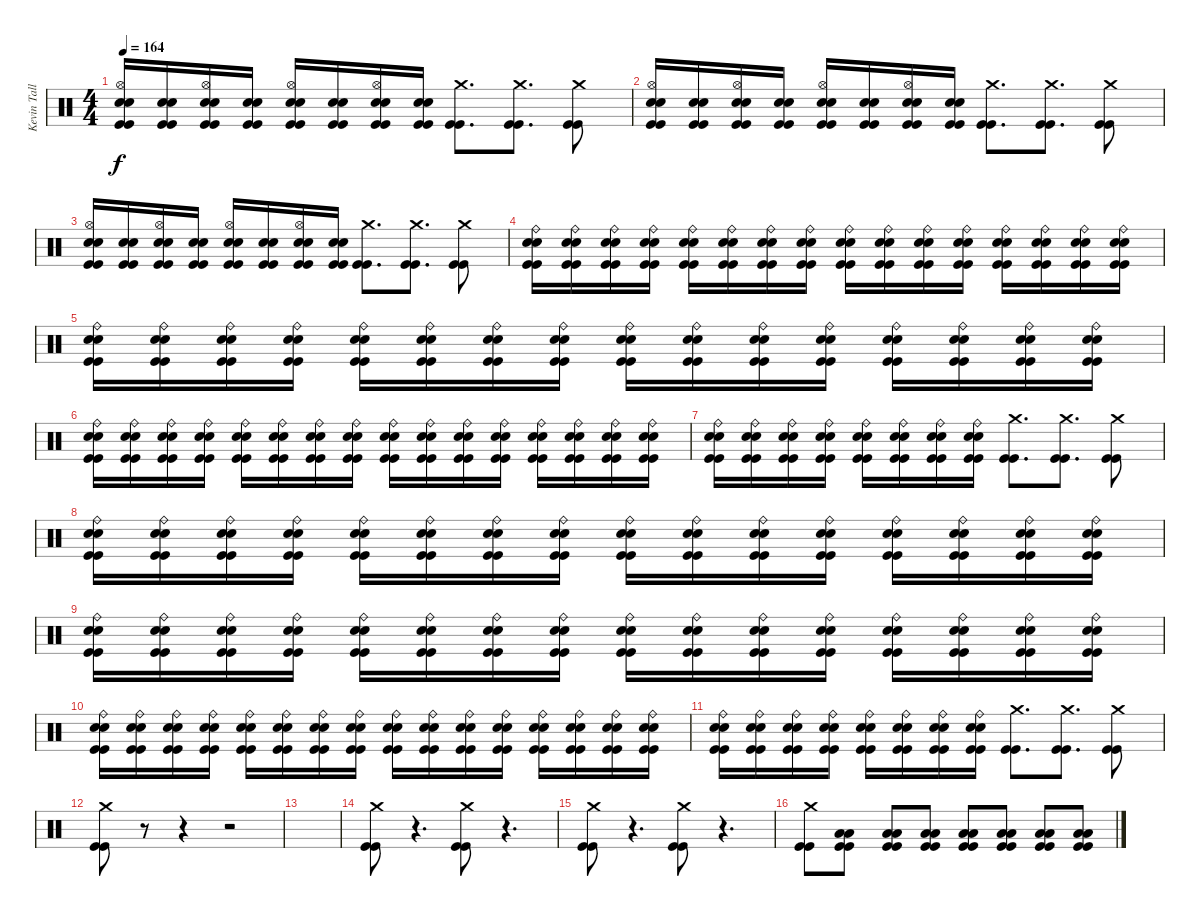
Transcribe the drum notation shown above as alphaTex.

\track ("Kevin Talley" "Kevin Tall") {instrument percussion}
\staff {score}
\articulation defaults
\ts (4 4)
\tempo 164
\clef neutral
\ks c
("Snare (hit) 2" "Snare (hit) 2" "Hi-Hat (open)" "Kick (hit)" "Kick (hit)").16{dy f} ("Snare (hit) 2" "Snare (hit) 2" "Kick (hit)" "Kick (hit)").16 ("Snare (hit) 2" "Snare (hit) 2" "Hi-Hat (open)" "Kick (hit)" "Kick (hit)").16 ("Snare (hit) 2" "Snare (hit) 2" "Kick (hit)" "Kick (hit)").16 ("Snare (hit) 2" "Snare (hit) 2" "Hi-Hat (open)" "Kick (hit)" "Kick (hit)").16 ("Snare (hit) 2" "Snare (hit) 2" "Kick (hit)" "Kick (hit)").16 ("Snare (hit) 2" "Snare (hit) 2" "Hi-Hat (open)" "Kick (hit)" "Kick (hit)").16 ("Snare (hit) 2" "Snare (hit) 2" "Kick (hit)" "Kick (hit)").16 ("Crash medium (hit)" "Kick (hit)" "Kick (hit)").8{d} ("Crash medium (hit)" "Kick (hit)" "Kick (hit)").8{d} ("Crash medium (hit)" "Kick (hit)" "Kick (hit)").8 |
("Snare (hit) 2" "Snare (hit) 2" "Hi-Hat (open)" "Kick (hit)" "Kick (hit)").16 ("Snare (hit) 2" "Snare (hit) 2" "Kick (hit)" "Kick (hit)").16 ("Snare (hit) 2" "Snare (hit) 2" "Hi-Hat (open)" "Kick (hit)" "Kick (hit)").16 ("Snare (hit) 2" "Snare (hit) 2" "Kick (hit)" "Kick (hit)").16 ("Snare (hit) 2" "Snare (hit) 2" "Hi-Hat (open)" "Kick (hit)" "Kick (hit)").16 ("Snare (hit) 2" "Snare (hit) 2" "Kick (hit)" "Kick (hit)").16 ("Snare (hit) 2" "Snare (hit) 2" "Hi-Hat (open)" "Kick (hit)" "Kick (hit)").16 ("Snare (hit) 2" "Snare (hit) 2" "Kick (hit)" "Kick (hit)").16 ("Crash medium (hit)" "Kick (hit)" "Kick (hit)").8{d} ("Crash medium (hit)" "Kick (hit)" "Kick (hit)").8{d} ("Crash medium (hit)" "Kick (hit)" "Kick (hit)").8 |
("Snare (hit) 2" "Snare (hit) 2" "Hi-Hat (open)" "Kick (hit)" "Kick (hit)").16 ("Snare (hit) 2" "Snare (hit) 2" "Kick (hit)" "Kick (hit)").16 ("Snare (hit) 2" "Snare (hit) 2" "Hi-Hat (open)" "Kick (hit)" "Kick (hit)").16 ("Snare (hit) 2" "Snare (hit) 2" "Kick (hit)" "Kick (hit)").16 ("Snare (hit) 2" "Snare (hit) 2" "Hi-Hat (open)" "Kick (hit)" "Kick (hit)").16 ("Snare (hit) 2" "Snare (hit) 2" "Kick (hit)" "Kick (hit)").16 ("Snare (hit) 2" "Snare (hit) 2" "Hi-Hat (open)" "Kick (hit)" "Kick (hit)").16 ("Snare (hit) 2" "Snare (hit) 2" "Kick (hit)" "Kick (hit)").16 ("Crash medium (hit)" "Kick (hit)" "Kick (hit)").8{d} ("Crash medium (hit)" "Kick (hit)" "Kick (hit)").8{d} ("Crash medium (hit)" "Kick (hit)" "Kick (hit)").8 |
("Snare (hit) 2" "Snare (hit) 2" "Ride (bell)" "Kick (hit)" "Kick (hit)").16 ("Snare (hit) 2" "Snare (hit) 2" "Ride (bell)" "Kick (hit)" "Kick (hit)").16 ("Snare (hit) 2" "Snare (hit) 2" "Ride (bell)" "Kick (hit)" "Kick (hit)").16 ("Snare (hit) 2" "Snare (hit) 2" "Ride (bell)" "Kick (hit)" "Kick (hit)").16 ("Snare (hit) 2" "Snare (hit) 2" "Ride (bell)" "Kick (hit)" "Kick (hit)").16 ("Snare (hit) 2" "Snare (hit) 2" "Ride (bell)" "Kick (hit)" "Kick (hit)").16 ("Snare (hit) 2" "Snare (hit) 2" "Ride (bell)" "Kick (hit)" "Kick (hit)").16 ("Snare (hit) 2" "Snare (hit) 2" "Ride (bell)" "Kick (hit)" "Kick (hit)").16 ("Snare (hit) 2" "Snare (hit) 2" "Ride (bell)" "Kick (hit)" "Kick (hit)").16 ("Snare (hit) 2" "Snare (hit) 2" "Ride (bell)" "Kick (hit)" "Kick (hit)").16 ("Snare (hit) 2" "Snare (hit) 2" "Ride (bell)" "Kick (hit)" "Kick (hit)").16 ("Snare (hit) 2" "Snare (hit) 2" "Ride (bell)" "Kick (hit)" "Kick (hit)").16 ("Snare (hit) 2" "Snare (hit) 2" "Ride (bell)" "Kick (hit)" "Kick (hit)").16 ("Snare (hit) 2" "Snare (hit) 2" "Ride (bell)" "Kick (hit)" "Kick (hit)").16 ("Snare (hit) 2" "Snare (hit) 2" "Ride (bell)" "Kick (hit)" "Kick (hit)").16 ("Snare (hit) 2" "Snare (hit) 2" "Ride (bell)" "Kick (hit)" "Kick (hit)").16 |
("Snare (hit) 2" "Snare (hit) 2" "Ride (bell)" "Kick (hit)" "Kick (hit)").16 ("Snare (hit) 2" "Snare (hit) 2" "Ride (bell)" "Kick (hit)" "Kick (hit)").16 ("Snare (hit) 2" "Snare (hit) 2" "Ride (bell)" "Kick (hit)" "Kick (hit)").16 ("Snare (hit) 2" "Snare (hit) 2" "Ride (bell)" "Kick (hit)" "Kick (hit)").16 ("Snare (hit) 2" "Snare (hit) 2" "Ride (bell)" "Kick (hit)" "Kick (hit)").16 ("Snare (hit) 2" "Snare (hit) 2" "Ride (bell)" "Kick (hit)" "Kick (hit)").16 ("Snare (hit) 2" "Snare (hit) 2" "Ride (bell)" "Kick (hit)" "Kick (hit)").16 ("Snare (hit) 2" "Snare (hit) 2" "Ride (bell)" "Kick (hit)" "Kick (hit)").16 ("Snare (hit) 2" "Snare (hit) 2" "Ride (bell)" "Kick (hit)" "Kick (hit)").16 ("Snare (hit) 2" "Snare (hit) 2" "Ride (bell)" "Kick (hit)" "Kick (hit)").16 ("Snare (hit) 2" "Snare (hit) 2" "Ride (bell)" "Kick (hit)" "Kick (hit)").16 ("Snare (hit) 2" "Snare (hit) 2" "Ride (bell)" "Kick (hit)" "Kick (hit)").16 ("Snare (hit) 2" "Snare (hit) 2" "Ride (bell)" "Kick (hit)" "Kick (hit)").16 ("Snare (hit) 2" "Snare (hit) 2" "Ride (bell)" "Kick (hit)" "Kick (hit)").16 ("Snare (hit) 2" "Snare (hit) 2" "Ride (bell)" "Kick (hit)" "Kick (hit)").16 ("Snare (hit) 2" "Snare (hit) 2" "Ride (bell)" "Kick (hit)" "Kick (hit)").16 |
("Snare (hit) 2" "Snare (hit) 2" "Ride (bell)" "Kick (hit)" "Kick (hit)").16 ("Snare (hit) 2" "Snare (hit) 2" "Ride (bell)" "Kick (hit)" "Kick (hit)").16 ("Snare (hit) 2" "Snare (hit) 2" "Ride (bell)" "Kick (hit)" "Kick (hit)").16 ("Snare (hit) 2" "Snare (hit) 2" "Ride (bell)" "Kick (hit)" "Kick (hit)").16 ("Snare (hit) 2" "Snare (hit) 2" "Ride (bell)" "Kick (hit)" "Kick (hit)").16 ("Snare (hit) 2" "Snare (hit) 2" "Ride (bell)" "Kick (hit)" "Kick (hit)").16 ("Snare (hit) 2" "Snare (hit) 2" "Ride (bell)" "Kick (hit)" "Kick (hit)").16 ("Snare (hit) 2" "Snare (hit) 2" "Ride (bell)" "Kick (hit)" "Kick (hit)").16 ("Snare (hit) 2" "Snare (hit) 2" "Ride (bell)" "Kick (hit)" "Kick (hit)").16 ("Snare (hit) 2" "Snare (hit) 2" "Ride (bell)" "Kick (hit)" "Kick (hit)").16 ("Snare (hit) 2" "Snare (hit) 2" "Ride (bell)" "Kick (hit)" "Kick (hit)").16 ("Snare (hit) 2" "Snare (hit) 2" "Ride (bell)" "Kick (hit)" "Kick (hit)").16 ("Snare (hit) 2" "Snare (hit) 2" "Ride (bell)" "Kick (hit)" "Kick (hit)").16 ("Snare (hit) 2" "Snare (hit) 2" "Ride (bell)" "Kick (hit)" "Kick (hit)").16 ("Snare (hit) 2" "Snare (hit) 2" "Ride (bell)" "Kick (hit)" "Kick (hit)").16 ("Snare (hit) 2" "Snare (hit) 2" "Ride (bell)" "Kick (hit)" "Kick (hit)").16 |
("Snare (hit) 2" "Snare (hit) 2" "Ride (bell)" "Kick (hit)" "Kick (hit)").16 ("Snare (hit) 2" "Snare (hit) 2" "Ride (bell)" "Kick (hit)" "Kick (hit)").16 ("Snare (hit) 2" "Snare (hit) 2" "Ride (bell)" "Kick (hit)" "Kick (hit)").16 ("Snare (hit) 2" "Snare (hit) 2" "Ride (bell)" "Kick (hit)" "Kick (hit)").16 ("Snare (hit) 2" "Snare (hit) 2" "Ride (bell)" "Kick (hit)" "Kick (hit)").16 ("Snare (hit) 2" "Snare (hit) 2" "Ride (bell)" "Kick (hit)" "Kick (hit)").16 ("Snare (hit) 2" "Snare (hit) 2" "Ride (bell)" "Kick (hit)" "Kick (hit)").16 ("Snare (hit) 2" "Snare (hit) 2" "Ride (bell)" "Kick (hit)" "Kick (hit)").16 ("Crash medium (hit)" "Kick (hit)" "Kick (hit)").8{d} ("Crash medium (hit)" "Kick (hit)" "Kick (hit)").8{d} ("Crash medium (hit)" "Kick (hit)" "Kick (hit)").8 |
("Snare (hit) 2" "Snare (hit) 2" "Ride (bell)" "Kick (hit)" "Kick (hit)").16 ("Snare (hit) 2" "Snare (hit) 2" "Ride (bell)" "Kick (hit)" "Kick (hit)").16 ("Snare (hit) 2" "Snare (hit) 2" "Ride (bell)" "Kick (hit)" "Kick (hit)").16 ("Snare (hit) 2" "Snare (hit) 2" "Ride (bell)" "Kick (hit)" "Kick (hit)").16 ("Snare (hit) 2" "Snare (hit) 2" "Ride (bell)" "Kick (hit)" "Kick (hit)").16 ("Snare (hit) 2" "Snare (hit) 2" "Ride (bell)" "Kick (hit)" "Kick (hit)").16 ("Snare (hit) 2" "Snare (hit) 2" "Ride (bell)" "Kick (hit)" "Kick (hit)").16 ("Snare (hit) 2" "Snare (hit) 2" "Ride (bell)" "Kick (hit)" "Kick (hit)").16 ("Snare (hit) 2" "Snare (hit) 2" "Ride (bell)" "Kick (hit)" "Kick (hit)").16 ("Snare (hit) 2" "Snare (hit) 2" "Ride (bell)" "Kick (hit)" "Kick (hit)").16 ("Snare (hit) 2" "Snare (hit) 2" "Ride (bell)" "Kick (hit)" "Kick (hit)").16 ("Snare (hit) 2" "Snare (hit) 2" "Ride (bell)" "Kick (hit)" "Kick (hit)").16 ("Snare (hit) 2" "Snare (hit) 2" "Ride (bell)" "Kick (hit)" "Kick (hit)").16 ("Snare (hit) 2" "Snare (hit) 2" "Ride (bell)" "Kick (hit)" "Kick (hit)").16 ("Snare (hit) 2" "Snare (hit) 2" "Ride (bell)" "Kick (hit)" "Kick (hit)").16 ("Snare (hit) 2" "Snare (hit) 2" "Ride (bell)" "Kick (hit)" "Kick (hit)").16 |
("Snare (hit) 2" "Snare (hit) 2" "Ride (bell)" "Kick (hit)" "Kick (hit)").16 ("Snare (hit) 2" "Snare (hit) 2" "Ride (bell)" "Kick (hit)" "Kick (hit)").16 ("Snare (hit) 2" "Snare (hit) 2" "Ride (bell)" "Kick (hit)" "Kick (hit)").16 ("Snare (hit) 2" "Snare (hit) 2" "Ride (bell)" "Kick (hit)" "Kick (hit)").16 ("Snare (hit) 2" "Snare (hit) 2" "Ride (bell)" "Kick (hit)" "Kick (hit)").16 ("Snare (hit) 2" "Snare (hit) 2" "Ride (bell)" "Kick (hit)" "Kick (hit)").16 ("Snare (hit) 2" "Snare (hit) 2" "Ride (bell)" "Kick (hit)" "Kick (hit)").16 ("Snare (hit) 2" "Snare (hit) 2" "Ride (bell)" "Kick (hit)" "Kick (hit)").16 ("Snare (hit) 2" "Snare (hit) 2" "Ride (bell)" "Kick (hit)" "Kick (hit)").16 ("Snare (hit) 2" "Snare (hit) 2" "Ride (bell)" "Kick (hit)" "Kick (hit)").16 ("Snare (hit) 2" "Snare (hit) 2" "Ride (bell)" "Kick (hit)" "Kick (hit)").16 ("Snare (hit) 2" "Snare (hit) 2" "Ride (bell)" "Kick (hit)" "Kick (hit)").16 ("Snare (hit) 2" "Snare (hit) 2" "Ride (bell)" "Kick (hit)" "Kick (hit)").16 ("Snare (hit) 2" "Snare (hit) 2" "Ride (bell)" "Kick (hit)" "Kick (hit)").16 ("Snare (hit) 2" "Snare (hit) 2" "Ride (bell)" "Kick (hit)" "Kick (hit)").16 ("Snare (hit) 2" "Snare (hit) 2" "Ride (bell)" "Kick (hit)" "Kick (hit)").16 |
("Snare (hit) 2" "Snare (hit) 2" "Ride (bell)" "Kick (hit)" "Kick (hit)").16 ("Snare (hit) 2" "Snare (hit) 2" "Ride (bell)" "Kick (hit)" "Kick (hit)").16 ("Snare (hit) 2" "Snare (hit) 2" "Ride (bell)" "Kick (hit)" "Kick (hit)").16 ("Snare (hit) 2" "Snare (hit) 2" "Ride (bell)" "Kick (hit)" "Kick (hit)").16 ("Snare (hit) 2" "Snare (hit) 2" "Ride (bell)" "Kick (hit)" "Kick (hit)").16 ("Snare (hit) 2" "Snare (hit) 2" "Ride (bell)" "Kick (hit)" "Kick (hit)").16 ("Snare (hit) 2" "Snare (hit) 2" "Ride (bell)" "Kick (hit)" "Kick (hit)").16 ("Snare (hit) 2" "Snare (hit) 2" "Ride (bell)" "Kick (hit)" "Kick (hit)").16 ("Snare (hit) 2" "Snare (hit) 2" "Ride (bell)" "Kick (hit)" "Kick (hit)").16 ("Snare (hit) 2" "Snare (hit) 2" "Ride (bell)" "Kick (hit)" "Kick (hit)").16 ("Snare (hit) 2" "Snare (hit) 2" "Ride (bell)" "Kick (hit)" "Kick (hit)").16 ("Snare (hit) 2" "Snare (hit) 2" "Ride (bell)" "Kick (hit)" "Kick (hit)").16 ("Snare (hit) 2" "Snare (hit) 2" "Ride (bell)" "Kick (hit)" "Kick (hit)").16 ("Snare (hit) 2" "Snare (hit) 2" "Ride (bell)" "Kick (hit)" "Kick (hit)").16 ("Snare (hit) 2" "Snare (hit) 2" "Ride (bell)" "Kick (hit)" "Kick (hit)").16 ("Snare (hit) 2" "Snare (hit) 2" "Ride (bell)" "Kick (hit)" "Kick (hit)").16 |
("Snare (hit) 2" "Snare (hit) 2" "Ride (bell)" "Kick (hit)" "Kick (hit)").16 ("Snare (hit) 2" "Snare (hit) 2" "Ride (bell)" "Kick (hit)" "Kick (hit)").16 ("Snare (hit) 2" "Snare (hit) 2" "Ride (bell)" "Kick (hit)" "Kick (hit)").16 ("Snare (hit) 2" "Snare (hit) 2" "Ride (bell)" "Kick (hit)" "Kick (hit)").16 ("Snare (hit) 2" "Snare (hit) 2" "Ride (bell)" "Kick (hit)" "Kick (hit)").16 ("Snare (hit) 2" "Snare (hit) 2" "Ride (bell)" "Kick (hit)" "Kick (hit)").16 ("Snare (hit) 2" "Snare (hit) 2" "Ride (bell)" "Kick (hit)" "Kick (hit)").16 ("Snare (hit) 2" "Snare (hit) 2" "Ride (bell)" "Kick (hit)" "Kick (hit)").16 ("Crash medium (hit)" "Kick (hit)" "Kick (hit)").8{d} ("Crash medium (hit)" "Kick (hit)" "Kick (hit)").8{d} ("Crash medium (hit)" "Kick (hit)" "Kick (hit)").8 |
("Crash medium (hit)" "Kick (hit)" "Kick (hit)").8 r.8 r.4 r.2 |
|
("Crash medium (hit)" "Kick (hit)" "Kick (hit)").8 r.4{d} ("Crash medium (hit)" "Kick (hit)" "Kick (hit)").8 r.4{d} |
("Crash medium (hit)" "Kick (hit)" "Kick (hit)").8 r.4{d} ("Crash medium (hit)" "Kick (hit)" "Kick (hit)").8 r.4{d} |
("Crash medium (hit)" "Kick (hit)" "Kick (hit)").8 ("Low Floor Tom (hit)" "Low Floor Tom (hit)" "Kick (hit)" "Kick (hit)").8 ("Low Floor Tom (hit)" "Low Floor Tom (hit)" "Kick (hit)" "Kick (hit)").8 ("Low Floor Tom (hit)" "Low Floor Tom (hit)" "Kick (hit)" "Kick (hit)").8 ("Low Floor Tom (hit)" "Low Floor Tom (hit)" "Kick (hit)" "Kick (hit)").8 ("Low Floor Tom (hit)" "Low Floor Tom (hit)" "Kick (hit)" "Kick (hit)").8 ("Low Floor Tom (hit)" "Low Floor Tom (hit)" "Kick (hit)" "Kick (hit)").8 ("Low Floor Tom (hit)" "Low Floor Tom (hit)" "Kick (hit)" "Kick (hit)").8
